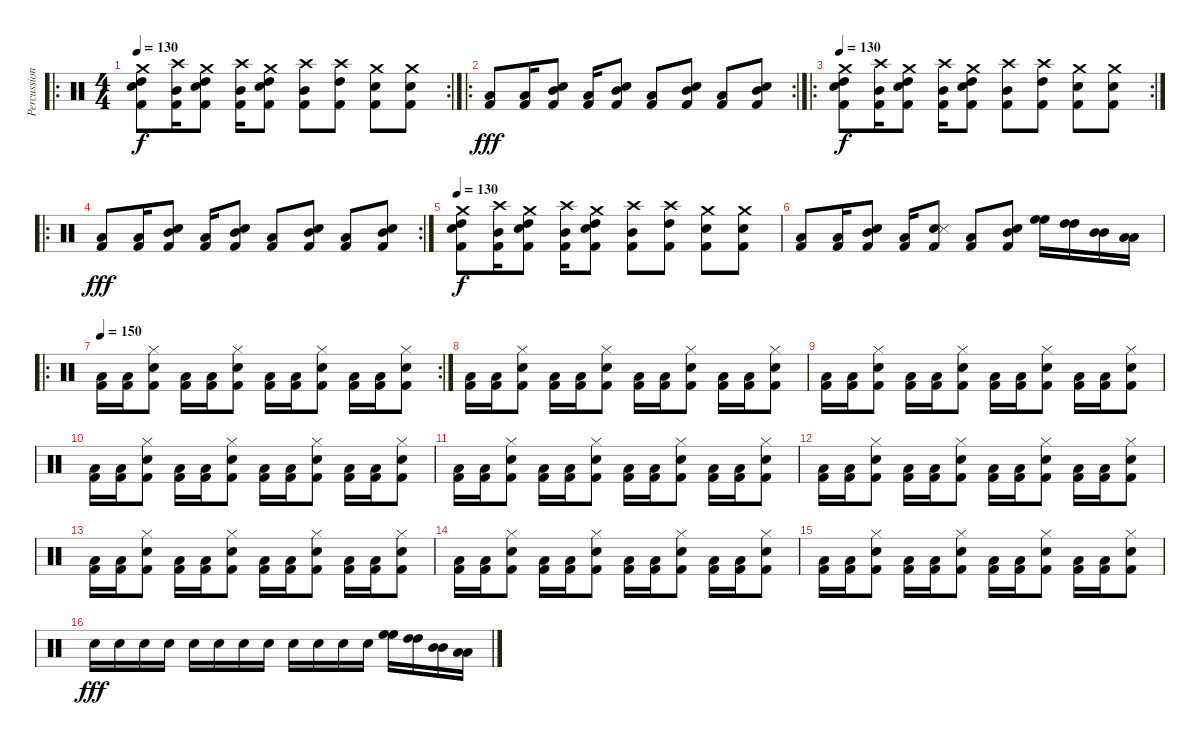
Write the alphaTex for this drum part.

\track ("Percussion" "Percussion") {instrument percussion}
\staff {score}
\articulation defaults
\ro
\rc 2
\ts (4 4)
\tempo 130
\clef neutral
\ks c
("Crash medium (hit)" "Snare (hit) 2" "Kick (hit) 2" "High Tom (hit)").8{dy f volume 10} ("Crash high (hit)" "Kick (hit) 2" "Mid Tom (hit)").16 ("Crash medium (hit)" "Snare (hit) 2" "Kick (hit) 2" "High Tom (hit)").8 ("Crash high (hit)" "Kick (hit) 2" "Mid Tom (hit)").16 ("Crash medium (hit)" "Snare (hit) 2" "Kick (hit) 2" "High Tom (hit)").8 ("Crash high (hit)" "Kick (hit) 2" "Mid Tom (hit)").8 ("Crash high (hit)" "Kick (hit) 2" "High Tom (hit)").8 ("Crash medium (hit)" "Snare (hit) 2" "Kick (hit) 2").8 ("Crash medium (hit)" "Snare (hit) 2" "Kick (hit) 2").8 |
\ro
\rc 2
("Kick (hit) 2" "Low Tom (hit)").8{dy fff volume 16} ("Kick (hit) 2" "Low Tom (hit)").16 ("Snare (hit) 2" "Kick (hit) 2" "Mid Tom (hit)").8 ("Kick (hit) 2" "Low Tom (hit)").16 ("Snare (hit) 2" "Kick (hit) 2" "Mid Tom (hit)").8 ("Kick (hit) 2" "Low Tom (hit)").8 ("Snare (hit) 2" "Kick (hit) 2" "Mid Tom (hit)").8 ("Kick (hit) 2" "Low Tom (hit)").8 ("Snare (hit) 2" "Kick (hit) 2" "Mid Tom (hit)").8 |
\ro
\rc 2
\tempo 130
("Crash medium (hit)" "Snare (hit) 2" "Kick (hit) 2" "High Tom (hit)").8{dy f volume 10} ("Crash high (hit)" "Kick (hit) 2" "Mid Tom (hit)").16 ("Crash medium (hit)" "Snare (hit) 2" "Kick (hit) 2" "High Tom (hit)").8 ("Crash high (hit)" "Kick (hit) 2" "Mid Tom (hit)").16 ("Crash medium (hit)" "Snare (hit) 2" "Kick (hit) 2" "High Tom (hit)").8 ("Crash high (hit)" "Kick (hit) 2" "Mid Tom (hit)").8 ("Crash high (hit)" "Kick (hit) 2" "High Tom (hit)").8 ("Crash medium (hit)" "Snare (hit) 2" "Kick (hit) 2").8 ("Crash medium (hit)" "Snare (hit) 2" "Kick (hit) 2").8 |
\ro
\rc 2
("Kick (hit) 2" "Low Tom (hit)").8{dy fff volume 16} ("Kick (hit) 2" "Low Tom (hit)").16 ("Snare (hit) 2" "Kick (hit) 2" "Mid Tom (hit)").8 ("Kick (hit) 2" "Low Tom (hit)").16 ("Snare (hit) 2" "Kick (hit) 2" "Mid Tom (hit)").8 ("Kick (hit) 2" "Low Tom (hit)").8 ("Snare (hit) 2" "Kick (hit) 2" "Mid Tom (hit)").8 ("Kick (hit) 2" "Low Tom (hit)").8 ("Snare (hit) 2" "Kick (hit) 2" "Mid Tom (hit)").8 |
\tempo 130
("Crash medium (hit)" "Snare (hit) 2" "Kick (hit) 2" "High Tom (hit)").8{dy f volume 10} ("Crash high (hit)" "Kick (hit) 2" "Mid Tom (hit)").16 ("Crash medium (hit)" "Snare (hit) 2" "Kick (hit) 2" "High Tom (hit)").8 ("Crash high (hit)" "Kick (hit) 2" "Mid Tom (hit)").16 ("Crash medium (hit)" "Snare (hit) 2" "Kick (hit) 2" "High Tom (hit)").8 ("Crash high (hit)" "Kick (hit) 2" "Mid Tom (hit)").8 ("Crash high (hit)" "Kick (hit) 2" "High Tom (hit)").8 ("Crash medium (hit)" "Snare (hit) 2" "Kick (hit) 2").8 ("Crash medium (hit)" "Snare (hit) 2" "Kick (hit) 2").8 |
("Kick (hit) 2" "Low Tom (hit)").8 ("Kick (hit) 2" "Low Tom (hit)").16 ("Snare (hit) 2" "Kick (hit) 2" "Mid Tom (hit)").8 ("Kick (hit) 2" "Low Tom (hit)").16 ("Snare (hit) 2" "Kick (hit) 2" "Snare (side stick) 3").8 ("Kick (hit) 2" "Low Tom (hit)").8 ("Snare (hit) 2" "Kick (hit) 2" "Mid Tom (hit)").8 ("High Floor Tom (hit)" "High Floor Tom (hit)").16 ("High Tom (hit)" "High Tom (hit)").16 ("Mid Tom (hit)" "Mid Tom (hit)").16 ("Low Tom (hit)" "Low Tom (hit)").16 |
\ro
\rc 2
\tempo 150
("Kick (hit) 2" "Low Tom (hit)").16{volume 13} ("Kick (hit) 2" "Low Tom (hit)").16 ("Hi-Hat (closed)" "Snare (hit) 2" "Kick (hit) 2").8 ("Kick (hit) 2" "Low Tom (hit)").16 ("Kick (hit) 2" "Low Tom (hit)").16 ("Hi-Hat (closed)" "Snare (hit) 2" "Kick (hit) 2").8 ("Kick (hit) 2" "Low Tom (hit)").16 ("Kick (hit) 2" "Low Tom (hit)").16 ("Hi-Hat (closed)" "Snare (hit) 2" "Kick (hit) 2").8 ("Kick (hit) 2" "Low Tom (hit)").16 ("Kick (hit) 2" "Low Tom (hit)").16 ("Hi-Hat (closed)" "Snare (hit) 2" "Kick (hit) 2").8 |
("Kick (hit) 2" "Low Tom (hit)").16{volume 13} ("Kick (hit) 2" "Low Tom (hit)").16 ("Hi-Hat (closed)" "Snare (hit) 2" "Kick (hit) 2").8 ("Kick (hit) 2" "Low Tom (hit)").16 ("Kick (hit) 2" "Low Tom (hit)").16 ("Hi-Hat (closed)" "Snare (hit) 2" "Kick (hit) 2").8 ("Kick (hit) 2" "Low Tom (hit)").16 ("Kick (hit) 2" "Low Tom (hit)").16 ("Hi-Hat (closed)" "Snare (hit) 2" "Kick (hit) 2").8 ("Kick (hit) 2" "Low Tom (hit)").16 ("Kick (hit) 2" "Low Tom (hit)").16 ("Hi-Hat (closed)" "Snare (hit) 2" "Kick (hit) 2").8 |
("Kick (hit) 2" "Low Tom (hit)").16{volume 13} ("Kick (hit) 2" "Low Tom (hit)").16 ("Hi-Hat (closed)" "Snare (hit) 2" "Kick (hit) 2").8 ("Kick (hit) 2" "Low Tom (hit)").16 ("Kick (hit) 2" "Low Tom (hit)").16 ("Hi-Hat (closed)" "Snare (hit) 2" "Kick (hit) 2").8 ("Kick (hit) 2" "Low Tom (hit)").16 ("Kick (hit) 2" "Low Tom (hit)").16 ("Hi-Hat (closed)" "Snare (hit) 2" "Kick (hit) 2").8 ("Kick (hit) 2" "Low Tom (hit)").16 ("Kick (hit) 2" "Low Tom (hit)").16 ("Hi-Hat (closed)" "Snare (hit) 2" "Kick (hit) 2").8 |
("Kick (hit) 2" "Low Tom (hit)").16{volume 13} ("Kick (hit) 2" "Low Tom (hit)").16 ("Hi-Hat (closed)" "Snare (hit) 2" "Kick (hit) 2").8 ("Kick (hit) 2" "Low Tom (hit)").16 ("Kick (hit) 2" "Low Tom (hit)").16 ("Hi-Hat (closed)" "Snare (hit) 2" "Kick (hit) 2").8 ("Kick (hit) 2" "Low Tom (hit)").16 ("Kick (hit) 2" "Low Tom (hit)").16 ("Hi-Hat (closed)" "Snare (hit) 2" "Kick (hit) 2").8 ("Kick (hit) 2" "Low Tom (hit)").16 ("Kick (hit) 2" "Low Tom (hit)").16 ("Hi-Hat (closed)" "Snare (hit) 2" "Kick (hit) 2").8 |
("Kick (hit) 2" "Low Tom (hit)").16{volume 13} ("Kick (hit) 2" "Low Tom (hit)").16 ("Hi-Hat (closed)" "Snare (hit) 2" "Kick (hit) 2").8 ("Kick (hit) 2" "Low Tom (hit)").16 ("Kick (hit) 2" "Low Tom (hit)").16 ("Hi-Hat (closed)" "Snare (hit) 2" "Kick (hit) 2").8 ("Kick (hit) 2" "Low Tom (hit)").16 ("Kick (hit) 2" "Low Tom (hit)").16 ("Hi-Hat (closed)" "Snare (hit) 2" "Kick (hit) 2").8 ("Kick (hit) 2" "Low Tom (hit)").16 ("Kick (hit) 2" "Low Tom (hit)").16 ("Hi-Hat (closed)" "Snare (hit) 2" "Kick (hit) 2").8 |
("Kick (hit) 2" "Low Tom (hit)").16{volume 13} ("Kick (hit) 2" "Low Tom (hit)").16 ("Hi-Hat (closed)" "Snare (hit) 2" "Kick (hit) 2").8 ("Kick (hit) 2" "Low Tom (hit)").16 ("Kick (hit) 2" "Low Tom (hit)").16 ("Hi-Hat (closed)" "Snare (hit) 2" "Kick (hit) 2").8 ("Kick (hit) 2" "Low Tom (hit)").16 ("Kick (hit) 2" "Low Tom (hit)").16 ("Hi-Hat (closed)" "Snare (hit) 2" "Kick (hit) 2").8 ("Kick (hit) 2" "Low Tom (hit)").16 ("Kick (hit) 2" "Low Tom (hit)").16 ("Hi-Hat (closed)" "Snare (hit) 2" "Kick (hit) 2").8 |
("Kick (hit) 2" "Low Tom (hit)").16{volume 13} ("Kick (hit) 2" "Low Tom (hit)").16 ("Hi-Hat (closed)" "Snare (hit) 2" "Kick (hit) 2").8 ("Kick (hit) 2" "Low Tom (hit)").16 ("Kick (hit) 2" "Low Tom (hit)").16 ("Hi-Hat (closed)" "Snare (hit) 2" "Kick (hit) 2").8 ("Kick (hit) 2" "Low Tom (hit)").16 ("Kick (hit) 2" "Low Tom (hit)").16 ("Hi-Hat (closed)" "Snare (hit) 2" "Kick (hit) 2").8 ("Kick (hit) 2" "Low Tom (hit)").16 ("Kick (hit) 2" "Low Tom (hit)").16 ("Hi-Hat (closed)" "Snare (hit) 2" "Kick (hit) 2").8 |
("Kick (hit) 2" "Low Tom (hit)").16{volume 13} ("Kick (hit) 2" "Low Tom (hit)").16 ("Hi-Hat (closed)" "Snare (hit) 2" "Kick (hit) 2").8 ("Kick (hit) 2" "Low Tom (hit)").16 ("Kick (hit) 2" "Low Tom (hit)").16 ("Hi-Hat (closed)" "Snare (hit) 2" "Kick (hit) 2").8 ("Kick (hit) 2" "Low Tom (hit)").16 ("Kick (hit) 2" "Low Tom (hit)").16 ("Hi-Hat (closed)" "Snare (hit) 2" "Kick (hit) 2").8 ("Kick (hit) 2" "Low Tom (hit)").16 ("Kick (hit) 2" "Low Tom (hit)").16 ("Hi-Hat (closed)" "Snare (hit) 2" "Kick (hit) 2").8 |
("Kick (hit) 2" "Low Tom (hit)").16{volume 13} ("Kick (hit) 2" "Low Tom (hit)").16 ("Hi-Hat (closed)" "Snare (hit) 2" "Kick (hit) 2").8 ("Kick (hit) 2" "Low Tom (hit)").16 ("Kick (hit) 2" "Low Tom (hit)").16 ("Hi-Hat (closed)" "Snare (hit) 2" "Kick (hit) 2").8 ("Kick (hit) 2" "Low Tom (hit)").16 ("Kick (hit) 2" "Low Tom (hit)").16 ("Hi-Hat (closed)" "Snare (hit) 2" "Kick (hit) 2").8 ("Kick (hit) 2" "Low Tom (hit)").16 ("Kick (hit) 2" "Low Tom (hit)").16 ("Hi-Hat (closed)" "Snare (hit) 2" "Kick (hit) 2").8 |
"Snare (hit) 2".16{dy fff} "Snare (hit) 2".16 "Snare (hit) 2".16 "Snare (hit) 2".16 "Snare (hit) 2".16 "Snare (hit) 2".16 "Snare (hit) 2".16 "Snare (hit) 2".16 "Snare (hit) 2".16 "Snare (hit) 2".16 "Snare (hit) 2".16 "Snare (hit) 2".16 ("High Floor Tom (hit)" "High Floor Tom (hit)").16 ("High Tom (hit)" "High Tom (hit)").16 ("Mid Tom (hit)" "Mid Tom (hit)").16 ("Low Tom (hit)" "Low Tom (hit)").16
